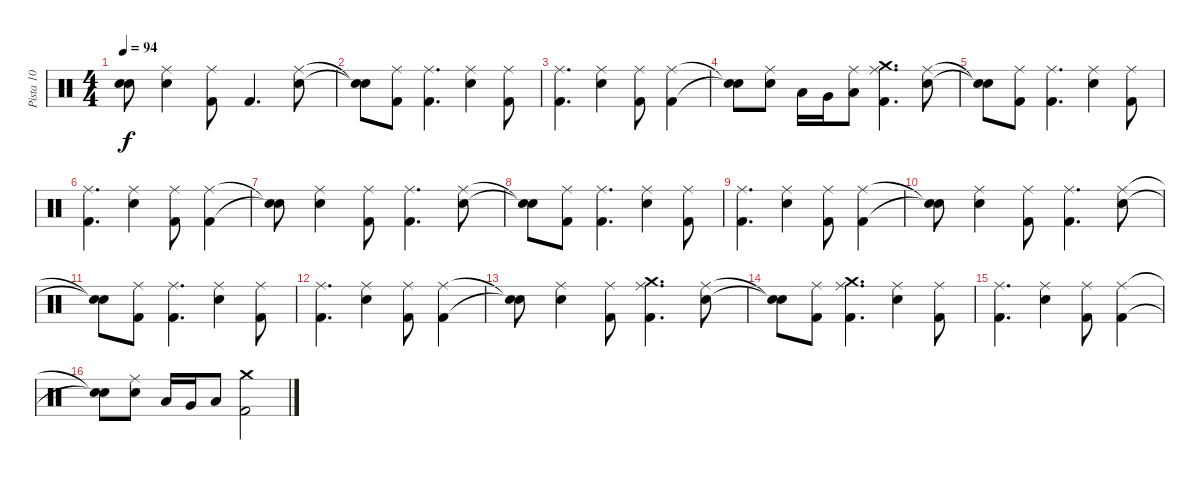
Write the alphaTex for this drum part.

\track ("Pista 10" "Pista 10") {instrument percussion}
\staff {score}
\articulation defaults
\ts (4 4)
\tempo 94
\clef neutral
\ks c
("Snare (hit)"{t} "Snare (hit)"{t}).8{dy f} ("Ride (middle)" "Snare (hit) 2").4 ("Ride (middle)" "Kick (hit) 2").8 "Kick (hit) 2".4{d} ("Ride (middle)" "Snare (hit) 2").8 |
("Snare (hit)"{t} "Snare (hit)"{t}).8 ("Ride (middle)" "Kick (hit) 2").8 ("Ride (middle)" "Kick (hit) 2").4{d} ("Ride (middle)" "Snare (hit) 2").4 ("Ride (middle)" "Kick (hit) 2").8 |
("Ride (middle)" "Kick (hit) 2").4{d} ("Ride (middle)" "Snare (hit) 2").4 ("Ride (middle)" "Kick (hit) 2").8 ("Ride (middle)" "Kick (hit) 2").4 |
("Snare (hit)"{t} "Snare (hit)"{t}).8 ("Ride (middle)" "Snare (hit) 2").8 "Low Tom (hit)".16 "Very Low Tom (hit)".16 ("Low Floor Tom (hit)" "Ride (middle)").8 ("Crash medium (hit)" "Ride (middle)" "Kick (hit) 2").4{d} ("Ride (middle)" "Snare (hit) 2").8 |
("Snare (hit)"{t} "Snare (hit)"{t}).8 ("Ride (middle)" "Kick (hit) 2").8 ("Ride (middle)" "Kick (hit) 2").4{d} ("Ride (middle)" "Snare (hit) 2").4 ("Ride (middle)" "Kick (hit) 2").8 |
("Ride (middle)" "Kick (hit) 2").4{d} ("Ride (middle)" "Snare (hit) 2").4 ("Ride (middle)" "Kick (hit) 2").8 ("Ride (middle)" "Kick (hit) 2").4 |
("Snare (hit)"{t} "Snare (hit)"{t}).8 ("Ride (middle)" "Snare (hit) 2").4 ("Ride (middle)" "Kick (hit) 2").8 ("Ride (middle)" "Kick (hit) 2").4{d} ("Ride (middle)" "Snare (hit) 2").8 |
("Snare (hit)"{t} "Snare (hit)"{t}).8 ("Ride (middle)" "Kick (hit) 2").8 ("Ride (middle)" "Kick (hit) 2").4{d} ("Ride (middle)" "Snare (hit) 2").4 ("Ride (middle)" "Kick (hit) 2").8 |
("Ride (middle)" "Kick (hit) 2").4{d} ("Ride (middle)" "Snare (hit) 2").4 ("Ride (middle)" "Kick (hit) 2").8 ("Ride (middle)" "Kick (hit) 2").4 |
("Snare (hit)"{t} "Snare (hit)"{t}).8 ("Ride (middle)" "Snare (hit) 2").4 ("Ride (middle)" "Kick (hit) 2").8 ("Ride (middle)" "Kick (hit) 2").4{d} ("Ride (middle)" "Snare (hit) 2").8 |
("Snare (hit)"{t} "Snare (hit)"{t}).8 ("Ride (middle)" "Kick (hit) 2").8 ("Ride (middle)" "Kick (hit) 2").4{d} ("Ride (middle)" "Snare (hit) 2").4 ("Ride (middle)" "Kick (hit) 2").8 |
("Ride (middle)" "Kick (hit) 2").4{d} ("Ride (middle)" "Snare (hit) 2").4 ("Ride (middle)" "Kick (hit) 2").8 ("Ride (middle)" "Kick (hit) 2").4 |
("Snare (hit)"{t} "Snare (hit)"{t}).8 ("Ride (middle)" "Snare (hit) 2").4 ("Ride (middle)" "Kick (hit) 2").8 ("Crash medium (hit)" "Ride (middle)" "Kick (hit) 2").4{d} ("Ride (middle)" "Snare (hit) 2").8 |
("Snare (hit)"{t} "Snare (hit)"{t}).8 ("Ride (middle)" "Kick (hit) 2").8 ("Crash medium (hit)" "Ride (middle)" "Kick (hit) 2").4{d} ("Ride (middle)" "Snare (hit) 2").4 ("Ride (middle)" "Kick (hit) 2").8 |
("Ride (middle)" "Kick (hit) 2").4{d} ("Ride (middle)" "Snare (hit) 2").4 ("Ride (middle)" "Kick (hit) 2").8 ("Ride (middle)" "Kick (hit) 2").4 |
("Snare (hit)"{t} "Snare (hit)"{t}).8 ("Ride (middle)" "Snare (hit) 2").8 "Low Tom (hit)".16 "Very Low Tom (hit)".16 "Low Floor Tom (hit)".8 ("Crash medium (hit)" "Kick (hit) 2").2
